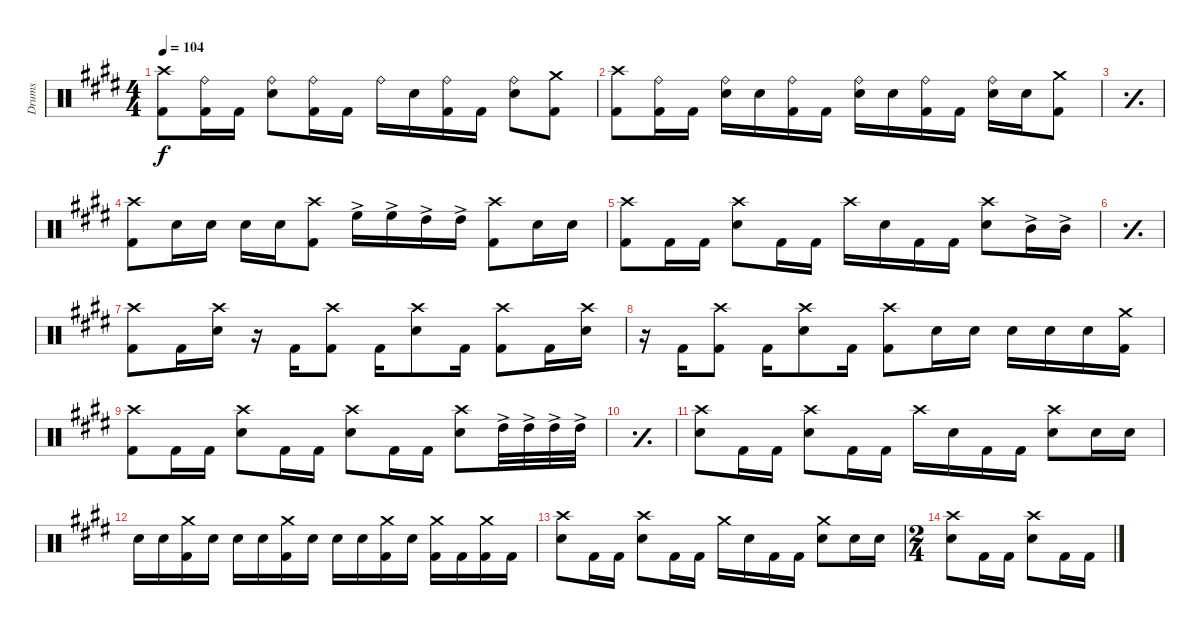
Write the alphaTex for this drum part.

\defaultSystemsLayout 4
\bracketExtendMode groupsimilarinstruments
\otherSystemsTrackNameOrientation horizontal
\track ("Drumkit" "Drums") {multiBarRest instrument percussion}
\staff {score}
\articulation defaults
\ts (4 4)
\tempo 104
\clef neutral
\ks c#minor
("Crash high (hit)"{acc forcenatural} "Kick (hit) 2"{acc forcenatural}).8{dy f} ("Kick (hit) 2"{acc forcenatural} "Ride (bell)"{acc forcenatural}).16 "Kick (hit) 2"{acc forcenatural}.16 ("Snare (hit) 2"{acc forcenatural} "Ride (bell)"{acc forcenatural}).8 ("Kick (hit) 2"{acc forcenatural} "Ride (bell)"{acc forcenatural}).16 "Kick (hit) 2"{acc forcenatural}.16 "Ride (bell)"{acc forcenatural}.16 "Snare (hit) 2"{acc forcenatural}.16 ("Kick (hit) 2"{acc forcenatural} "Ride (bell)"{acc forcenatural}).16 "Kick (hit) 2"{acc forcenatural}.16 ("Snare (hit) 2"{acc forcenatural} "Ride (bell)"{acc forcenatural}).8 ("Crash medium (hit)"{acc forcenatural} "Kick (hit) 2"{acc forcenatural}).8 |
("Crash high (hit)"{acc forcenatural} "Kick (hit) 2"{acc forcenatural}).8 ("Kick (hit) 2"{acc forcenatural} "Ride (bell)"{acc forcenatural}).16 "Kick (hit) 2"{acc forcenatural}.16 ("Snare (hit) 2"{acc forcenatural} "Ride (bell)"{acc forcenatural}).16 "Snare (hit) 2"{acc forcenatural}.16 ("Kick (hit) 2"{acc forcenatural} "Ride (bell)"{acc forcenatural}).16 "Kick (hit) 2"{acc forcenatural}.16 ("Snare (hit) 2"{acc forcenatural} "Ride (bell)"{acc forcenatural}).16 "Snare (hit) 2"{acc forcenatural}.16 ("Kick (hit) 2"{acc forcenatural} "Ride (bell)"{acc forcenatural}).16 "Kick (hit) 2"{acc forcenatural}.16 ("Snare (hit) 2"{acc forcenatural} "Ride (bell)"{acc forcenatural}).16 "Snare (hit) 2"{acc forcenatural}.16 ("Crash medium (hit)"{acc forcenatural} "Kick (hit) 2"{acc forcenatural}).8 |
\simile simple
|
\simile none
("Crash high (hit)"{acc forcenatural} "Kick (hit) 2"{acc forcenatural}).8 "Snare (hit) 2"{acc forcenatural}.16 "Snare (hit) 2"{acc forcenatural}.16 "Snare (hit) 2"{acc forcenatural}.16 "Snare (hit) 2"{acc forcenatural}.16 ("Crash high (hit)"{acc forcenatural} "Kick (hit) 2"{acc forcenatural}).8 "High Floor Tom (hit)"{ac acc forcenatural}.16 "High Floor Tom (hit)"{ac acc forcenatural}.16 "High Tom (hit)"{ac acc forcenatural}.16 "High Tom (hit)"{ac acc forcenatural}.16 ("Crash high (hit)"{acc forcenatural} "Kick (hit) 2"{acc forcenatural}).8 "Snare (hit) 2"{acc forcenatural}.16 "Snare (hit) 2"{acc forcenatural}.16 |
("Crash high (hit)"{acc forcenatural} "Kick (hit) 2"{acc forcenatural}).8 "Kick (hit) 2"{acc forcenatural}.16 "Kick (hit) 2"{acc forcenatural}.16 ("Crash high (hit)"{acc forcenatural} "Snare (hit) 2"{acc forcenatural}).8 "Kick (hit) 2"{acc forcenatural}.16 "Kick (hit) 2"{acc forcenatural}.16 "Crash high (hit)"{acc forcenatural}.16 "Snare (hit) 2"{acc forcenatural}.16 "Kick (hit) 2"{acc forcenatural}.16 "Kick (hit) 2"{acc forcenatural}.16 ("Crash high (hit)"{acc forcenatural} "Snare (hit) 2"{acc forcenatural}).8 "Mid Tom (hit)"{ac acc forcenatural}.16 "Mid Tom (hit)"{ac acc forcenatural}.16 |
\simile simple
|
\simile none
("Crash high (hit)"{acc forcenatural} "Kick (hit) 2"{acc forcenatural}).8 "Kick (hit) 2"{acc forcenatural}.16 ("Crash high (hit)"{acc forcenatural} "Snare (hit) 2"{acc forcenatural}).16 r.16 "Kick (hit) 2"{acc forcenatural}.16 ("Crash high (hit)"{acc forcenatural} "Kick (hit) 2"{acc forcenatural}).8 "Kick (hit) 2"{acc forcenatural}.16 ("Crash high (hit)"{acc forcenatural} "Snare (hit) 2"{acc forcenatural}).8 "Kick (hit) 2"{acc forcenatural}.16 ("Crash high (hit)"{acc forcenatural} "Kick (hit) 2"{acc forcenatural}).8 "Kick (hit) 2"{acc forcenatural}.16 ("Crash high (hit)"{acc forcenatural} "Snare (hit) 2"{acc forcenatural}).16 |
r.16 "Kick (hit) 2"{acc forcenatural}.16 ("Crash high (hit)"{acc forcenatural} "Kick (hit) 2"{acc forcenatural}).8 "Kick (hit) 2"{acc forcenatural}.16 ("Crash high (hit)"{acc forcenatural} "Snare (hit) 2"{acc forcenatural}).8 "Kick (hit) 2"{acc forcenatural}.16 ("Crash high (hit)"{acc forcenatural} "Kick (hit) 2"{acc forcenatural}).8 "Snare (hit) 2"{acc forcenatural}.16 "Snare (hit) 2"{acc forcenatural}.16 "Snare (hit) 2"{acc forcenatural}.16 "Snare (hit) 2"{acc forcenatural}.16 "Snare (hit) 2"{acc forcenatural}.16 ("Kick (hit) 2"{acc forcenatural} "Crash medium (hit)"{acc forcenatural}).16 |
("Crash high (hit)"{acc forcenatural} "Kick (hit) 2"{acc forcenatural}).8 "Kick (hit) 2"{acc forcenatural}.16 "Kick (hit) 2"{acc forcenatural}.16 ("Crash high (hit)"{acc forcenatural} "Snare (hit) 2"{acc forcenatural}).8 "Kick (hit) 2"{acc forcenatural}.16 "Kick (hit) 2"{acc forcenatural}.16 ("Crash high (hit)"{acc forcenatural} "Snare (hit) 2"{acc forcenatural}).8 "Kick (hit) 2"{acc forcenatural}.16 "Kick (hit) 2"{acc forcenatural}.16 ("Crash high (hit)"{acc forcenatural} "Snare (hit) 2"{acc forcenatural}).8 "High Tom (hit)"{ac acc forcenatural}.32 "High Tom (hit)"{ac acc forcenatural}.32 "High Tom (hit)"{ac acc forcenatural}.32 "High Tom (hit)"{ac acc forcenatural}.32 |
\simile simple
|
\simile none
("Crash high (hit)"{acc forcenatural} "Snare (hit) 2"{acc forcenatural}).8 "Kick (hit) 2"{acc forcenatural}.16 "Kick (hit) 2"{acc forcenatural}.16 ("Crash high (hit)"{acc forcenatural} "Snare (hit) 2"{acc forcenatural}).8 "Kick (hit) 2"{acc forcenatural}.16 "Kick (hit) 2"{acc forcenatural}.16 "Crash high (hit)"{acc forcenatural}.16 "Snare (hit) 2"{acc forcenatural}.16 "Kick (hit) 2"{acc forcenatural}.16 "Kick (hit) 2"{acc forcenatural}.16 ("Snare (hit) 2"{acc forcenatural} "Crash high (hit)"{acc forcenatural}).8 "Snare (hit) 2"{acc forcenatural}.16 "Snare (hit) 2"{acc forcenatural}.16 |
"Snare (hit) 2"{acc forcenatural}.16 "Snare (hit) 2"{acc forcenatural}.16 ("Kick (hit) 2"{acc forcenatural} "Crash medium (hit)"{acc forcenatural}).16 "Snare (hit) 2"{acc forcenatural}.16 "Snare (hit) 2"{acc forcenatural}.16 "Snare (hit) 2"{acc forcenatural}.16 ("Kick (hit) 2"{acc forcenatural} "Crash medium (hit)"{acc forcenatural}).16 "Snare (hit) 2"{acc forcenatural}.16 "Snare (hit) 2"{acc forcenatural}.16 "Snare (hit) 2"{acc forcenatural}.16 ("Kick (hit) 2"{acc forcenatural} "Crash medium (hit)"{acc forcenatural}).16 "Snare (hit) 2"{acc forcenatural}.16 ("Kick (hit) 2"{acc forcenatural} "Crash medium (hit)"{acc forcenatural}).16 "Kick (hit) 2"{acc forcenatural}.16 ("Kick (hit) 2"{acc forcenatural} "Crash medium (hit)"{acc forcenatural}).16 "Kick (hit) 2"{acc forcenatural}.16 |
("Crash high (hit)"{acc forcenatural} "Snare (hit) 2"{acc forcenatural}).8 "Kick (hit) 2"{acc forcenatural}.16 "Kick (hit) 2"{acc forcenatural}.16 ("Crash high (hit)"{acc forcenatural} "Snare (hit) 2"{acc forcenatural}).8 "Kick (hit) 2"{acc forcenatural}.16 "Kick (hit) 2"{acc forcenatural}.16 "Crash medium (hit)"{acc forcenatural}.16 "Snare (hit) 2"{acc forcenatural}.16 "Kick (hit) 2"{acc forcenatural}.16 "Kick (hit) 2"{acc forcenatural}.16 ("Snare (hit) 2"{acc forcenatural} "Crash medium (hit)"{acc forcenatural}).8 "Snare (hit) 2"{acc forcenatural}.16 "Snare (hit) 2"{acc forcenatural}.16 |
\ts (2 4)
("Crash high (hit)"{acc forcenatural} "Snare (hit) 2"{acc forcenatural}).8 "Kick (hit) 2"{acc forcenatural}.16 "Kick (hit) 2"{acc forcenatural}.16 ("Crash high (hit)"{acc forcenatural} "Snare (hit) 2"{acc forcenatural}).8 "Kick (hit) 2"{acc forcenatural}.16 "Kick (hit) 2"{acc forcenatural}.16
